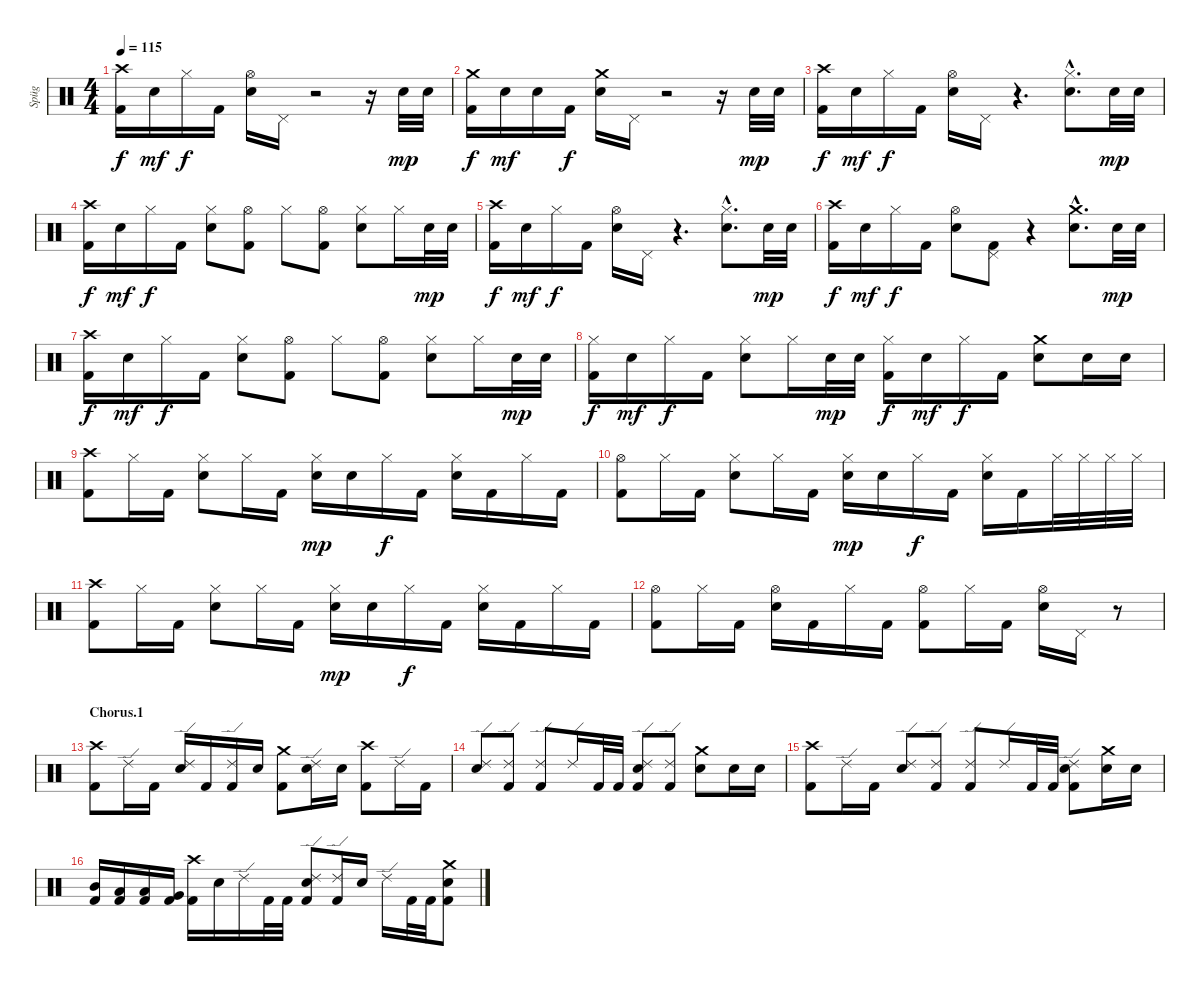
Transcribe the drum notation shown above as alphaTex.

\track ("Spüg" "Spüg") {instrument percussion}
\staff {score}
\articulation defaults
\ts (4 4)
\tempo 115
\clef neutral
\ks c
("Crash high (hit)" "Kick (hit) 2").16{dy f} "Electric Snare (hit)".16{dy mf} "Hi-Hat (closed)".16{dy f} "Kick (hit) 2".16 ("Hi-Hat (open)" "Electric Snare (hit)").16 "Pedal Hi-Hat (hit)".16 r.2 r.16 "Electric Snare (hit)".32{dy mp} "Electric Snare (hit)".32 |
("Crash medium (hit)" "Kick (hit) 2").16{dy f} "Electric Snare (hit)".16{dy mf} "Electric Snare (hit)".16 "Kick (hit) 2".16{dy f} ("Crash medium (hit)" "Electric Snare (hit)").16 "Pedal Hi-Hat (hit)".16 r.2 r.16 "Electric Snare (hit)".32{dy mp} "Electric Snare (hit)".32 |
("Crash high (hit)" "Kick (hit) 2").16{dy f} "Electric Snare (hit)".16{dy mf} "Hi-Hat (closed)".16{dy f} "Kick (hit) 2".16 ("Hi-Hat (open)" "Electric Snare (hit)").16 "Pedal Hi-Hat (hit)".16 r.4{d} ("Hi-Hat (closed)"{hac} "Electric Snare (hit)"{hac}).8{d} "Electric Snare (hit)".32{dy mp} "Electric Snare (hit)".32 |
("Crash high (hit)" "Kick (hit) 2").16{dy f} "Electric Snare (hit)".16{dy mf} "Hi-Hat (closed)".16{dy f} "Kick (hit) 2".16 ("Hi-Hat (closed)" "Electric Snare (hit)").8 ("Hi-Hat (open)" "Kick (hit) 2").8 "Hi-Hat (closed)".8 ("Hi-Hat (open)" "Kick (hit) 2").8 ("Hi-Hat (closed)" "Electric Snare (hit)").8 "Hi-Hat (closed)".16 "Electric Snare (hit)".32{dy mp} "Electric Snare (hit)".32 |
("Crash high (hit)" "Kick (hit) 2").16{dy f} "Electric Snare (hit)".16{dy mf} "Hi-Hat (closed)".16{dy f} "Kick (hit) 2".16 ("Hi-Hat (open)" "Electric Snare (hit)").16 "Pedal Hi-Hat (hit)".16 r.4{d} ("Hi-Hat (closed)"{hac} "Electric Snare (hit)"{hac}).8{d} "Electric Snare (hit)".32{dy mp} "Electric Snare (hit)".32 |
("Crash high (hit)" "Kick (hit) 2").16{dy f} "Electric Snare (hit)".16{dy mf} "Hi-Hat (closed)".16{dy f} "Kick (hit) 2".16 ("Hi-Hat (open)" "Electric Snare (hit)").8 ("Pedal Hi-Hat (hit)" "Kick (hit) 2").8 r.4 ("Crash medium (hit)"{hac} "Electric Snare (hit)"{hac}).8{d} "Electric Snare (hit)".32{dy mp} "Electric Snare (hit)".32 |
("Crash high (hit)" "Kick (hit) 2").16{dy f} "Electric Snare (hit)".16{dy mf} "Hi-Hat (closed)".16{dy f} "Kick (hit) 2".16 ("Hi-Hat (closed)" "Electric Snare (hit)").8 ("Hi-Hat (open)" "Kick (hit) 2").8 "Hi-Hat (closed)".8 ("Hi-Hat (open)" "Kick (hit) 2").8 ("Hi-Hat (closed)" "Electric Snare (hit)").8 "Hi-Hat (closed)".16 "Electric Snare (hit)".32{dy mp} "Electric Snare (hit)".32 |
("Hi-Hat (closed)" "Kick (hit) 2").16{dy f} "Electric Snare (hit)".16{dy mf} "Hi-Hat (closed)".16{dy f} "Kick (hit) 2".16 ("Hi-Hat (closed)" "Electric Snare (hit)").8 "Hi-Hat (closed)".16 "Electric Snare (hit)".32{dy mp} "Electric Snare (hit)".32 ("Hi-Hat (closed)" "Kick (hit) 2").16{dy f} "Electric Snare (hit)".16{dy mf} "Hi-Hat (closed)".16{dy f} "Kick (hit) 2".16 ("Crash medium (hit)" "Electric Snare (hit)").8 "Electric Snare (hit)".16 "Electric Snare (hit)".16 |
("Crash high (hit)" "Kick (hit) 2").8 "Hi-Hat (closed)".16 "Kick (hit) 2".16 ("Hi-Hat (closed)" "Electric Snare (hit)").8 "Hi-Hat (closed)".16 "Kick (hit) 2".16 ("Hi-Hat (closed)" "Electric Snare (hit)").16{dy mp} "Electric Snare (hit)".16 "Hi-Hat (closed)".16{dy f} "Kick (hit) 2".16 ("Hi-Hat (closed)" "Electric Snare (hit)").16 "Kick (hit) 2".16 "Hi-Hat (closed)".16 "Kick (hit) 2".16 |
("Hi-Hat (open)" "Kick (hit) 2").8 "Hi-Hat (closed)".16 "Kick (hit) 2".16 ("Hi-Hat (closed)" "Electric Snare (hit)").8 "Hi-Hat (closed)".16 "Kick (hit) 2".16 ("Hi-Hat (closed)" "Electric Snare (hit)").16{dy mp} "Electric Snare (hit)".16 "Hi-Hat (closed)".16{dy f} "Kick (hit) 2".16 ("Hi-Hat (closed)" "Electric Snare (hit)").16 "Kick (hit) 2".16 "Hi-Hat (closed)".32 "Hi-Hat (closed)".32 "Hi-Hat (closed)".32 "Hi-Hat (closed)".32 |
("Crash high (hit)" "Kick (hit) 2").8 "Hi-Hat (closed)".16 "Kick (hit) 2".16 ("Hi-Hat (closed)" "Electric Snare (hit)").8 "Hi-Hat (closed)".16 "Kick (hit) 2".16 ("Hi-Hat (closed)" "Electric Snare (hit)").16{dy mp} "Electric Snare (hit)".16 "Hi-Hat (closed)".16{dy f} "Kick (hit) 2".16 ("Hi-Hat (closed)" "Electric Snare (hit)").16 "Kick (hit) 2".16 "Hi-Hat (closed)".16 "Kick (hit) 2".16 |
("Hi-Hat (open)" "Kick (hit) 2").8 "Hi-Hat (closed)".16 "Kick (hit) 2".16 ("Hi-Hat (open)" "Electric Snare (hit)").16 "Kick (hit) 2".16 "Hi-Hat (closed)".16 "Kick (hit) 2".16 ("Hi-Hat (open)" "Kick (hit) 2").8 "Hi-Hat (closed)".16 "Kick (hit) 2".16 ("Hi-Hat (open)" "Electric Snare (hit)").16 "Pedal Hi-Hat (hit)".16 r.8 |
\section ("" "Chorus.1")
("Crash high (hit)" "Kick (hit) 2").8 "Ride (edge) 2".16 "Kick (hit) 2".16 ("Ride (edge) 2" "Electric Snare (hit)").16 "Kick (hit) 2".16 ("Ride (edge) 2" "Kick (hit) 2").16 "Electric Snare (hit)".16 ("Crash medium (hit)" "Kick (hit) 2").8 ("Ride (edge) 2" "Electric Snare (hit)").16 "Electric Snare (hit)".16 ("Crash high (hit)" "Kick (hit) 2").8 "Ride (edge) 2".16 "Kick (hit) 2".16 |
("Ride (edge) 2" "Electric Snare (hit)").8 ("Ride (edge) 2" "Kick (hit) 2").8 ("Ride (edge) 2" "Kick (hit) 2").8 "Ride (edge) 2".16 "Kick (hit) 2".32 "Kick (hit) 2".32 ("Ride (edge) 2" "Electric Snare (hit)" "Kick (hit) 2").8 ("Ride (edge) 2" "Kick (hit) 2").8 ("Crash medium (hit)" "Electric Snare (hit)").8 "Electric Snare (hit)".16 "Electric Snare (hit)".16 |
("Crash high (hit)" "Kick (hit) 2").8 "Ride (edge) 2".16 "Kick (hit) 2".16 ("Ride (edge) 2" "Electric Snare (hit)").8 ("Ride (edge) 2" "Kick (hit) 2").8 ("Ride (edge) 2" "Kick (hit) 2").8 "Ride (edge) 2".16 "Kick (hit) 2".32 "Kick (hit) 2".32 ("Ride (edge) 2" "Electric Snare (hit)" "Kick (hit) 2").8 ("Crash medium (hit)" "Electric Snare (hit)").16 "Electric Snare (hit)".16 |
("Mid Tom (hit)" "Kick (hit) 2").16 ("Low Tom (hit)" "Kick (hit) 2").16 ("Low Tom (hit)" "Kick (hit) 2").16 ("Very Low Tom (hit)" "Kick (hit) 2").16 ("Crash high (hit)" "Kick (hit) 2").16 "Electric Snare (hit)".16 "Ride (edge) 2".16 "Kick (hit) 2".32 "Kick (hit) 2".32 ("Ride (edge) 2" "Electric Snare (hit)" "Kick (hit) 2").8 ("Ride (edge) 2" "Kick (hit) 2").16 "Electric Snare (hit)".16 "Ride (edge) 2".16 "Kick (hit) 2".32 "Kick (hit) 2".32 ("Crash medium (hit)" "Electric Snare (hit)" "Kick (hit) 2").8
